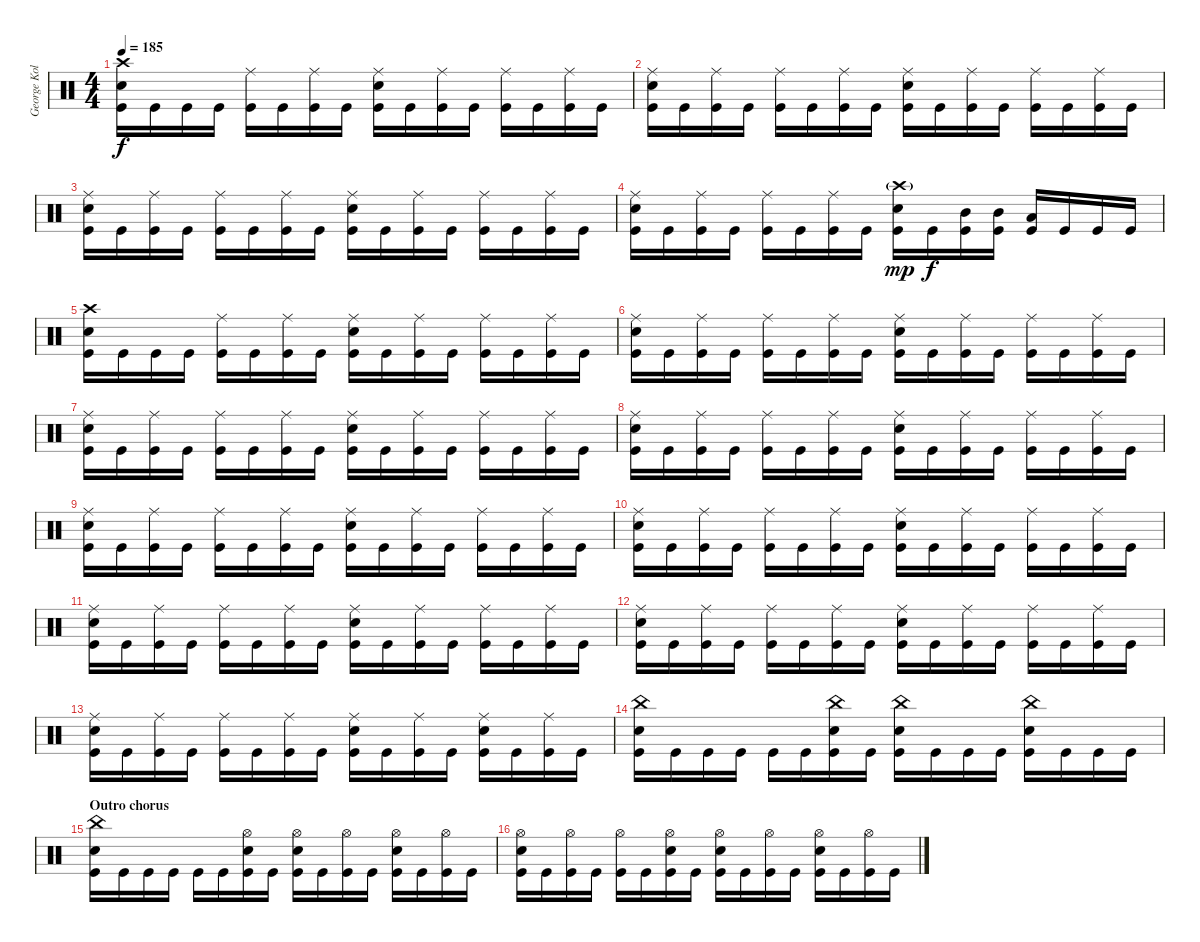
\track ("George Kollias" "George Kol") {instrument percussion}
\staff {score}
\articulation defaults
\ts (4 4)
\tempo 185
\clef neutral
\ks c
("Crash high (hit)" "Snare (hit) 2" "Kick (hit)").16{dy f} "Kick (hit)".16 "Kick (hit)".16 "Kick (hit)".16 ("Ride (middle)" "Kick (hit)").16 "Kick (hit)".16 ("Ride (middle)" "Kick (hit)").16 "Kick (hit)".16 ("Ride (middle)" "Snare (hit) 2" "Kick (hit)").16 "Kick (hit)".16 ("Ride (middle)" "Kick (hit)").16 "Kick (hit)".16 ("Ride (middle)" "Kick (hit)").16 "Kick (hit)".16 ("Ride (middle)" "Kick (hit)").16 "Kick (hit)".16 |
("Ride (middle)" "Snare (hit) 2" "Kick (hit)").16 "Kick (hit)".16 ("Ride (middle)" "Kick (hit)").16 "Kick (hit)".16 ("Ride (middle)" "Kick (hit)").16 "Kick (hit)".16 ("Ride (middle)" "Kick (hit)").16 "Kick (hit)".16 ("Ride (middle)" "Snare (hit) 2" "Kick (hit)").16 "Kick (hit)".16 ("Ride (middle)" "Kick (hit)").16 "Kick (hit)".16 ("Ride (middle)" "Kick (hit)").16 "Kick (hit)".16 ("Ride (middle)" "Kick (hit)").16 "Kick (hit)".16 |
("Ride (middle)" "Snare (hit) 2" "Kick (hit)").16 "Kick (hit)".16 ("Ride (middle)" "Kick (hit)").16 "Kick (hit)".16 ("Ride (middle)" "Kick (hit)").16 "Kick (hit)".16 ("Ride (middle)" "Kick (hit)").16 "Kick (hit)".16 ("Ride (middle)" "Snare (hit) 2" "Kick (hit)").16 "Kick (hit)".16 ("Ride (middle)" "Kick (hit)").16 "Kick (hit)".16 ("Ride (middle)" "Kick (hit)").16 "Kick (hit)".16 ("Ride (middle)" "Kick (hit)").16 "Kick (hit)".16 |
("Ride (middle)" "Snare (hit) 2" "Kick (hit)").16 "Kick (hit)".16 ("Ride (middle)" "Kick (hit)").16 "Kick (hit)".16 ("Ride (middle)" "Kick (hit)").16 "Kick (hit)".16 ("Ride (middle)" "Kick (hit)").16 "Kick (hit)".16 ("Crash high (hit)"{g} "Snare (hit) 2" "Kick (hit)").16{dy mp} "Kick (hit)".16{dy f} ("Mid Tom (hit)" "Kick (hit)").16 ("Mid Tom (hit)" "Kick (hit)").16 ("Low Tom (hit)" "Kick (hit)").16 "Kick (hit)".16 "Kick (hit)".16 "Kick (hit)".16 |
("Crash high (hit)" "Snare (hit) 2" "Kick (hit)").16 "Kick (hit)".16 "Kick (hit)".16 "Kick (hit)".16 ("Ride (middle)" "Kick (hit)").16 "Kick (hit)".16 ("Ride (middle)" "Kick (hit)").16 "Kick (hit)".16 ("Ride (middle)" "Snare (hit) 2" "Kick (hit)").16 "Kick (hit)".16 ("Ride (middle)" "Kick (hit)").16 "Kick (hit)".16 ("Ride (middle)" "Kick (hit)").16 "Kick (hit)".16 ("Ride (middle)" "Kick (hit)").16 "Kick (hit)".16 |
("Ride (middle)" "Snare (hit) 2" "Kick (hit)").16 "Kick (hit)".16 ("Ride (middle)" "Kick (hit)").16 "Kick (hit)".16 ("Ride (middle)" "Kick (hit)").16 "Kick (hit)".16 ("Ride (middle)" "Kick (hit)").16 "Kick (hit)".16 ("Ride (middle)" "Snare (hit) 2" "Kick (hit)").16 "Kick (hit)".16 ("Ride (middle)" "Kick (hit)").16 "Kick (hit)".16 ("Ride (middle)" "Kick (hit)").16 "Kick (hit)".16 ("Ride (middle)" "Kick (hit)").16 "Kick (hit)".16 |
("Ride (middle)" "Snare (hit) 2" "Kick (hit)").16 "Kick (hit)".16 ("Ride (middle)" "Kick (hit)").16 "Kick (hit)".16 ("Ride (middle)" "Kick (hit)").16 "Kick (hit)".16 ("Ride (middle)" "Kick (hit)").16 "Kick (hit)".16 ("Ride (middle)" "Snare (hit) 2" "Kick (hit)").16 "Kick (hit)".16 ("Ride (middle)" "Kick (hit)").16 "Kick (hit)".16 ("Ride (middle)" "Kick (hit)").16 "Kick (hit)".16 ("Ride (middle)" "Kick (hit)").16 "Kick (hit)".16 |
("Ride (middle)" "Snare (hit) 2" "Kick (hit)").16 "Kick (hit)".16 ("Ride (middle)" "Kick (hit)").16 "Kick (hit)".16 ("Ride (middle)" "Kick (hit)").16 "Kick (hit)".16 ("Ride (middle)" "Kick (hit)").16 "Kick (hit)".16 ("Ride (middle)" "Snare (hit) 2" "Kick (hit)").16 "Kick (hit)".16 ("Ride (middle)" "Kick (hit)").16 "Kick (hit)".16 ("Ride (middle)" "Kick (hit)").16 "Kick (hit)".16 ("Ride (middle)" "Kick (hit)").16 "Kick (hit)".16 |
("Ride (middle)" "Snare (hit) 2" "Kick (hit)").16 "Kick (hit)".16 ("Ride (middle)" "Kick (hit)").16 "Kick (hit)".16 ("Ride (middle)" "Kick (hit)").16 "Kick (hit)".16 ("Ride (middle)" "Kick (hit)").16 "Kick (hit)".16 ("Ride (middle)" "Snare (hit) 2" "Kick (hit)").16 "Kick (hit)".16 ("Ride (middle)" "Kick (hit)").16 "Kick (hit)".16 ("Ride (middle)" "Kick (hit)").16 "Kick (hit)".16 ("Ride (middle)" "Kick (hit)").16 "Kick (hit)".16 |
("Ride (middle)" "Snare (hit) 2" "Kick (hit)").16 "Kick (hit)".16 ("Ride (middle)" "Kick (hit)").16 "Kick (hit)".16 ("Ride (middle)" "Kick (hit)").16 "Kick (hit)".16 ("Ride (middle)" "Kick (hit)").16 "Kick (hit)".16 ("Ride (middle)" "Snare (hit) 2" "Kick (hit)").16 "Kick (hit)".16 ("Ride (middle)" "Kick (hit)").16 "Kick (hit)".16 ("Ride (middle)" "Kick (hit)").16 "Kick (hit)".16 ("Ride (middle)" "Kick (hit)").16 "Kick (hit)".16 |
("Ride (middle)" "Snare (hit) 2" "Kick (hit)").16 "Kick (hit)".16 ("Ride (middle)" "Kick (hit)").16 "Kick (hit)".16 ("Ride (middle)" "Kick (hit)").16 "Kick (hit)".16 ("Ride (middle)" "Kick (hit)").16 "Kick (hit)".16 ("Ride (middle)" "Snare (hit) 2" "Kick (hit)").16 "Kick (hit)".16 ("Ride (middle)" "Kick (hit)").16 "Kick (hit)".16 ("Ride (middle)" "Kick (hit)").16 "Kick (hit)".16 ("Ride (middle)" "Kick (hit)").16 "Kick (hit)".16 |
("Ride (middle)" "Snare (hit) 2" "Kick (hit)").16 "Kick (hit)".16 ("Ride (middle)" "Kick (hit)").16 "Kick (hit)".16 ("Ride (middle)" "Kick (hit)").16 "Kick (hit)".16 ("Ride (middle)" "Kick (hit)").16 "Kick (hit)".16 ("Ride (middle)" "Snare (hit) 2" "Kick (hit)").16 "Kick (hit)".16 ("Ride (middle)" "Kick (hit)").16 "Kick (hit)".16 ("Ride (middle)" "Kick (hit)").16 "Kick (hit)".16 ("Ride (middle)" "Kick (hit)").16 "Kick (hit)".16 |
("Ride (middle)" "Snare (hit) 2" "Kick (hit)").16 "Kick (hit)".16 ("Ride (middle)" "Kick (hit)").16 "Kick (hit)".16 ("Ride (middle)" "Kick (hit)").16 "Kick (hit)".16 ("Ride (middle)" "Kick (hit)").16 "Kick (hit)".16 ("Ride (middle)" "Snare (hit) 2" "Kick (hit)").16 "Kick (hit)".16 ("Ride (middle)" "Kick (hit)").16 "Kick (hit)".16 ("Ride (middle)" "Snare (hit) 2" "Kick (hit)").16 "Kick (hit)".16 ("Ride (middle)" "Kick (hit)").16 "Kick (hit)".16 |
("China (hit)" "Snare (hit) 2" "Kick (hit)").16 "Kick (hit)".16 "Kick (hit)".16 "Kick (hit)".16 "Kick (hit)".16 "Kick (hit)".16 ("China (hit)" "Snare (hit) 2" "Kick (hit)").16 "Kick (hit)".16 ("China (hit)" "Snare (hit) 2" "Kick (hit)").16 "Kick (hit)".16 "Kick (hit)".16 "Kick (hit)".16 ("China (hit)" "Snare (hit) 2" "Kick (hit)").16 "Kick (hit)".16 "Kick (hit)".16 "Kick (hit)".16 |
\section ("" "Outro chorus")
("China (hit)" "Snare (hit) 2" "Kick (hit)").16 "Kick (hit)".16 "Kick (hit)".16 "Kick (hit)".16 "Kick (hit)".16 "Kick (hit)".16 ("Hi-Hat (open)" "Snare (hit) 2" "Kick (hit)").16 "Kick (hit)".16 ("Hi-Hat (open)" "Snare (hit) 2" "Kick (hit)").16 "Kick (hit)".16 ("Hi-Hat (open)" "Kick (hit)").16 "Kick (hit)".16 ("Hi-Hat (open)" "Snare (hit) 2" "Kick (hit)").16 "Kick (hit)".16 ("Hi-Hat (open)" "Kick (hit)").16 "Kick (hit)".16 |
("Hi-Hat (open)" "Snare (hit) 2" "Kick (hit)").16 "Kick (hit)".16 ("Hi-Hat (open)" "Kick (hit)").16 "Kick (hit)".16 ("Hi-Hat (open)" "Kick (hit)").16 "Kick (hit)".16 ("Hi-Hat (open)" "Snare (hit) 2" "Kick (hit)").16 "Kick (hit)".16 ("Hi-Hat (open)" "Snare (hit) 2" "Kick (hit)").16 "Kick (hit)".16 ("Hi-Hat (open)" "Kick (hit)").16 "Kick (hit)".16 ("Hi-Hat (open)" "Snare (hit) 2" "Kick (hit)").16 "Kick (hit)".16 ("Hi-Hat (open)" "Kick (hit)").16 "Kick (hit)".16
